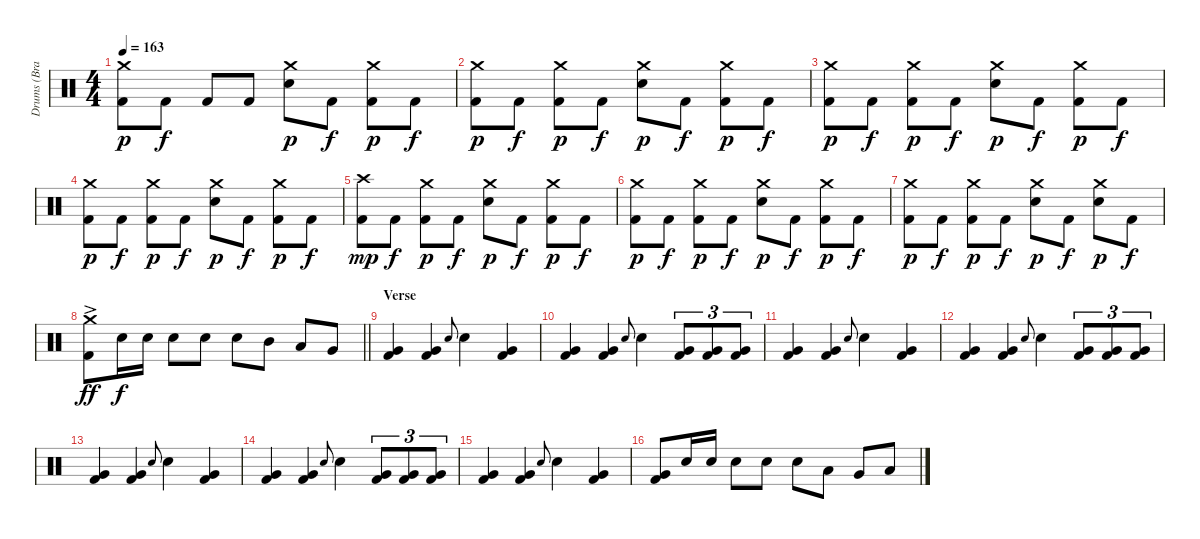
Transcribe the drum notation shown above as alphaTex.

\track ("Drums (Brandon Saller)" "Drums (Bra") {instrument percussion}
\staff {score}
\articulation defaults
\ts (4 4)
\tempo 163
\clef neutral
\ks c
("Crash medium (hit)" "Kick (hit) 2").8{dy p} "Kick (hit) 2".8{dy f} "Kick (hit) 2".8 "Kick (hit) 2".8 ("Crash medium (hit)" "Electric Snare (hit)").8{dy p} "Kick (hit) 2".8{dy f} ("Crash medium (hit)" "Kick (hit) 2").8{dy p} "Kick (hit) 2".8{dy f} |
("Crash medium (hit)" "Kick (hit) 2").8{dy p} "Kick (hit) 2".8{dy f} ("Crash medium (hit)" "Kick (hit) 2").8{dy p} "Kick (hit) 2".8{dy f} ("Crash medium (hit)" "Electric Snare (hit)").8{dy p} "Kick (hit) 2".8{dy f} ("Crash medium (hit)" "Kick (hit) 2").8{dy p} "Kick (hit) 2".8{dy f} |
("Crash medium (hit)" "Kick (hit) 2").8{dy p} "Kick (hit) 2".8{dy f} ("Crash medium (hit)" "Kick (hit) 2").8{dy p} "Kick (hit) 2".8{dy f} ("Crash medium (hit)" "Electric Snare (hit)").8{dy p} "Kick (hit) 2".8{dy f} ("Crash medium (hit)" "Kick (hit) 2").8{dy p} "Kick (hit) 2".8{dy f} |
("Crash medium (hit)" "Kick (hit) 2").8{dy p} "Kick (hit) 2".8{dy f} ("Crash medium (hit)" "Kick (hit) 2").8{dy p} "Kick (hit) 2".8{dy f} ("Crash medium (hit)" "Electric Snare (hit)").8{dy p} "Kick (hit) 2".8{dy f} ("Crash medium (hit)" "Kick (hit) 2").8{dy p} "Kick (hit) 2".8{dy f} |
("Crash high (hit)" "Kick (hit) 2").8{dy mp} "Kick (hit) 2".8{dy f} ("Crash medium (hit)" "Kick (hit) 2").8{dy p} "Kick (hit) 2".8{dy f} ("Crash medium (hit)" "Electric Snare (hit)").8{dy p} "Kick (hit) 2".8{dy f} ("Crash medium (hit)" "Kick (hit) 2").8{dy p} "Kick (hit) 2".8{dy f} |
("Crash medium (hit)" "Kick (hit) 2").8{dy p} "Kick (hit) 2".8{dy f} ("Crash medium (hit)" "Kick (hit) 2").8{dy p} "Kick (hit) 2".8{dy f} ("Crash medium (hit)" "Electric Snare (hit)").8{dy p} "Kick (hit) 2".8{dy f} ("Crash medium (hit)" "Kick (hit) 2").8{dy p} "Kick (hit) 2".8{dy f} |
("Crash medium (hit)" "Kick (hit) 2").8{dy p} "Kick (hit) 2".8{dy f} ("Crash medium (hit)" "Kick (hit) 2").8{dy p} "Kick (hit) 2".8{dy f} ("Crash medium (hit)" "Electric Snare (hit)").8{dy p} "Kick (hit) 2".8{dy f} ("Crash medium (hit)" "Electric Snare (hit)").8{dy p} "Kick (hit) 2".8{dy f} |
\barLineRight lightlight
("Crash medium (hit)" "Kick (hit) 2"{ac}).8{dy ff} "Electric Snare (hit)".16{dy f} "Electric Snare (hit)".16 "Electric Snare (hit)".8 "Electric Snare (hit)".8 "Electric Snare (hit)".8 "Mid Tom (hit)".8 "Low Tom (hit)".8 "Very Low Tom (hit)".8 |
\section ("" "Verse")
("Very Low Tom (hit)" "Kick (hit) 2").4 ("Very Low Tom (hit)" "Kick (hit) 2").4 "Electric Snare (hit)".8{gr onbeat} "Electric Snare (hit)".4 ("Very Low Tom (hit)" "Kick (hit) 2").4 |
("Very Low Tom (hit)" "Kick (hit) 2").4 ("Very Low Tom (hit)" "Kick (hit) 2").4 "Electric Snare (hit)".8{gr onbeat} "Electric Snare (hit)".4 ("Very Low Tom (hit)" "Kick (hit) 2").8{tu (3 2)} ("Very Low Tom (hit)" "Kick (hit) 2").8{tu (3 2)} ("Very Low Tom (hit)" "Kick (hit) 2").8{tu (3 2)} |
("Very Low Tom (hit)" "Kick (hit) 2").4 ("Very Low Tom (hit)" "Kick (hit) 2").4 "Electric Snare (hit)".8{gr onbeat} "Electric Snare (hit)".4 ("Very Low Tom (hit)" "Kick (hit) 2").4 |
("Very Low Tom (hit)" "Kick (hit) 2").4 ("Very Low Tom (hit)" "Kick (hit) 2").4 "Electric Snare (hit)".8{gr onbeat} "Electric Snare (hit)".4 ("Very Low Tom (hit)" "Kick (hit) 2").8{tu (3 2)} ("Very Low Tom (hit)" "Kick (hit) 2").8{tu (3 2)} ("Very Low Tom (hit)" "Kick (hit) 2").8{tu (3 2)} |
("Very Low Tom (hit)" "Kick (hit) 2").4 ("Very Low Tom (hit)" "Kick (hit) 2").4 "Electric Snare (hit)".8{gr onbeat} "Electric Snare (hit)".4 ("Very Low Tom (hit)" "Kick (hit) 2").4 |
("Very Low Tom (hit)" "Kick (hit) 2").4 ("Very Low Tom (hit)" "Kick (hit) 2").4 "Electric Snare (hit)".8{gr onbeat} "Electric Snare (hit)".4 ("Very Low Tom (hit)" "Kick (hit) 2").8{tu (3 2)} ("Very Low Tom (hit)" "Kick (hit) 2").8{tu (3 2)} ("Very Low Tom (hit)" "Kick (hit) 2").8{tu (3 2)} |
("Very Low Tom (hit)" "Kick (hit) 2").4 ("Very Low Tom (hit)" "Kick (hit) 2").4 "Electric Snare (hit)".8{gr onbeat} "Electric Snare (hit)".4 ("Very Low Tom (hit)" "Kick (hit) 2").4 |
("Very Low Tom (hit)" "Kick (hit) 2").8 "Electric Snare (hit)".16 "Electric Snare (hit)".16 "Electric Snare (hit)".8 "Electric Snare (hit)".8 "Electric Snare (hit)".8 "Low Tom (hit)".8 "Very Low Tom (hit)".8 "Low Floor Tom (hit)".8
